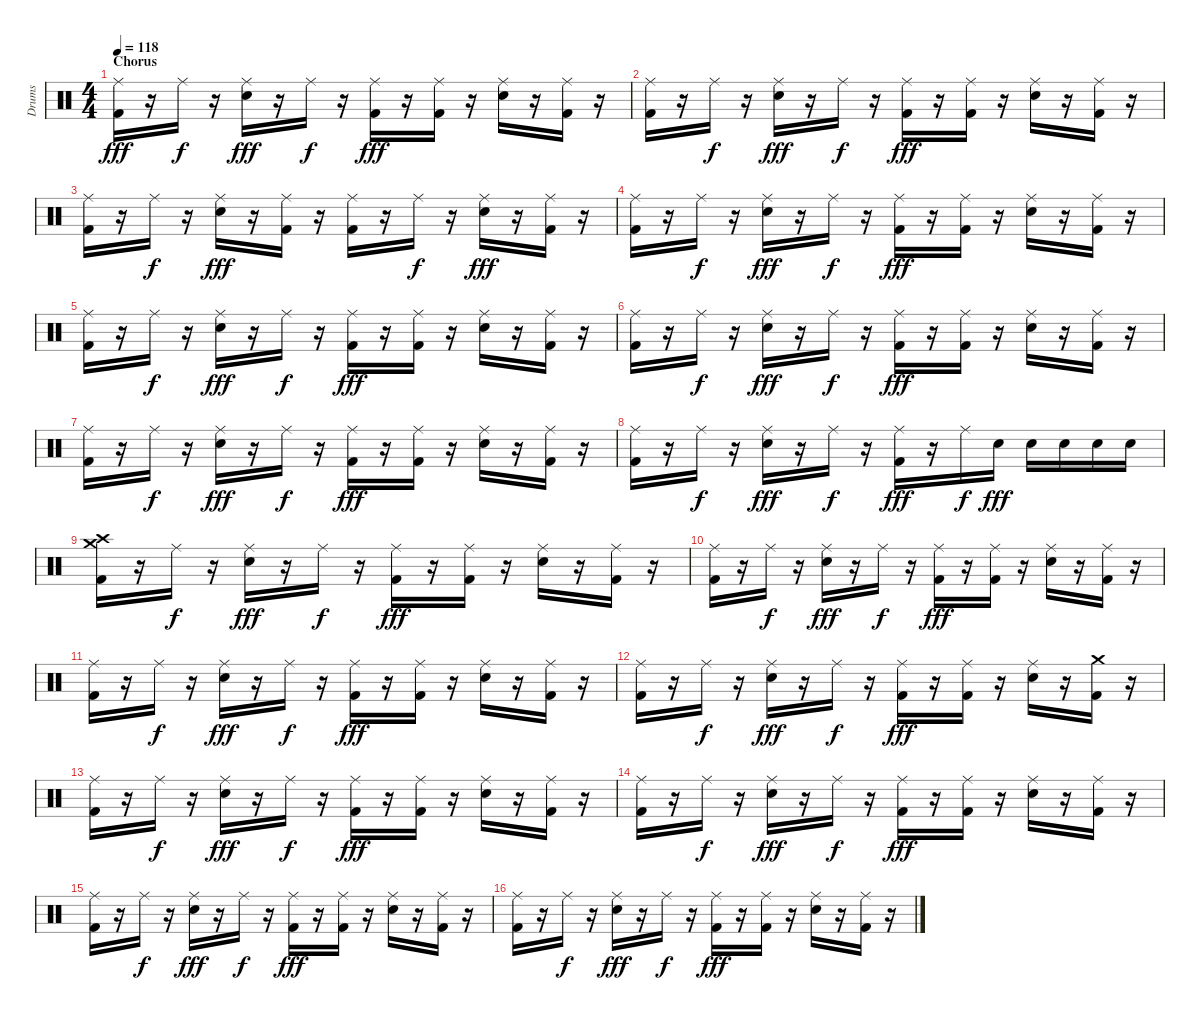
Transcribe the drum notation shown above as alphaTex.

\track ("Drums" "Drums") {instrument percussion}
\staff {score}
\articulation defaults
\ts (4 4)
\section ("" "Chorus")
\tempo 118
\clef neutral
\ks c
("Ride (middle)" "Kick (hit) 2").16{dy fff} r.16 "Ride (middle)".16{dy f} r.16 ("Ride (middle)" "Snare (hit) 2").16{dy fff} r.16 "Ride (middle)".16{dy f} r.16 ("Ride (middle)" "Kick (hit) 2").16{dy fff} r.16 ("Ride (middle)" "Kick (hit) 2").16 r.16 ("Ride (middle)" "Snare (hit) 2").16 r.16 ("Ride (middle)" "Kick (hit) 2").16 r.16 |
("Ride (middle)" "Kick (hit) 2").16 r.16 "Ride (middle)".16{dy f} r.16 ("Ride (middle)" "Snare (hit) 2").16{dy fff} r.16 "Ride (middle)".16{dy f} r.16 ("Ride (middle)" "Kick (hit) 2").16{dy fff} r.16 ("Ride (middle)" "Kick (hit) 2").16 r.16 ("Ride (middle)" "Snare (hit) 2").16 r.16 ("Ride (middle)" "Kick (hit) 2").16 r.16 |
("Ride (middle)" "Kick (hit) 2").16 r.16 "Ride (middle)".16{dy f} r.16 ("Ride (middle)" "Snare (hit) 2").16{dy fff} r.16 ("Ride (middle)" "Kick (hit) 2").16 r.16 ("Ride (middle)" "Kick (hit) 2").16 r.16 "Ride (middle)".16{dy f} r.16 ("Ride (middle)" "Snare (hit) 2").16{dy fff} r.16 ("Ride (middle)" "Kick (hit) 2").16 r.16 |
("Ride (middle)" "Kick (hit) 2").16 r.16 "Ride (middle)".16{dy f} r.16 ("Ride (middle)" "Snare (hit) 2").16{dy fff} r.16 "Ride (middle)".16{dy f} r.16 ("Ride (middle)" "Kick (hit) 2").16{dy fff} r.16 ("Ride (middle)" "Kick (hit) 2").16 r.16 ("Ride (middle)" "Snare (hit) 2").16 r.16 ("Ride (middle)" "Kick (hit) 2").16 r.16 |
("Ride (middle)" "Kick (hit) 2").16 r.16 "Ride (middle)".16{dy f} r.16 ("Ride (middle)" "Snare (hit) 2").16{dy fff} r.16 "Ride (middle)".16{dy f} r.16 ("Ride (middle)" "Kick (hit) 2").16{dy fff} r.16 ("Ride (middle)" "Kick (hit) 2").16 r.16 ("Ride (middle)" "Snare (hit) 2").16 r.16 ("Ride (middle)" "Kick (hit) 2").16 r.16 |
("Ride (middle)" "Kick (hit) 2").16 r.16 "Ride (middle)".16{dy f} r.16 ("Ride (middle)" "Snare (hit) 2").16{dy fff} r.16 "Ride (middle)".16{dy f} r.16 ("Ride (middle)" "Kick (hit) 2").16{dy fff} r.16 ("Ride (middle)" "Kick (hit) 2").16 r.16 ("Ride (middle)" "Snare (hit) 2").16 r.16 ("Ride (middle)" "Kick (hit) 2").16 r.16 |
("Ride (middle)" "Kick (hit) 2").16 r.16 "Ride (middle)".16{dy f} r.16 ("Ride (middle)" "Snare (hit) 2").16{dy fff} r.16 "Ride (middle)".16{dy f} r.16 ("Ride (middle)" "Kick (hit) 2").16{dy fff} r.16 ("Ride (middle)" "Kick (hit) 2").16 r.16 ("Ride (middle)" "Snare (hit) 2").16 r.16 ("Ride (middle)" "Kick (hit) 2").16 r.16 |
("Ride (middle)" "Kick (hit) 2").16 r.16 "Ride (middle)".16{dy f} r.16 ("Ride (middle)" "Snare (hit) 2").16{dy fff} r.16 "Ride (middle)".16{dy f} r.16 ("Ride (middle)" "Kick (hit) 2").16{dy fff} r.16 "Ride (middle)".16{dy f} "Snare (hit) 2".16{dy fff} "Snare (hit) 2".16 "Snare (hit) 2".16 "Snare (hit) 2".16 "Snare (hit) 2".16 |
("Crash high (hit)" "Crash medium (hit)" "Kick (hit) 2").16 r.16 "Ride (middle)".16{dy f} r.16 ("Ride (middle)" "Snare (hit) 2").16{dy fff} r.16 "Ride (middle)".16{dy f} r.16 ("Ride (middle)" "Kick (hit) 2").16{dy fff} r.16 ("Ride (middle)" "Kick (hit) 2").16 r.16 ("Ride (middle)" "Snare (hit) 2").16 r.16 ("Ride (middle)" "Kick (hit) 2").16 r.16 |
("Ride (middle)" "Kick (hit) 2").16 r.16 "Ride (middle)".16{dy f} r.16 ("Ride (middle)" "Snare (hit) 2").16{dy fff} r.16 "Ride (middle)".16{dy f} r.16 ("Ride (middle)" "Kick (hit) 2").16{dy fff} r.16 ("Ride (middle)" "Kick (hit) 2").16 r.16 ("Ride (middle)" "Snare (hit) 2").16 r.16 ("Ride (middle)" "Kick (hit) 2").16 r.16 |
("Ride (middle)" "Kick (hit) 2").16 r.16 "Ride (middle)".16{dy f} r.16 ("Ride (middle)" "Snare (hit) 2").16{dy fff} r.16 "Ride (middle)".16{dy f} r.16 ("Ride (middle)" "Kick (hit) 2").16{dy fff} r.16 ("Ride (middle)" "Kick (hit) 2").16 r.16 ("Ride (middle)" "Snare (hit) 2").16 r.16 ("Ride (middle)" "Kick (hit) 2").16 r.16 |
("Ride (middle)" "Kick (hit) 2").16 r.16 "Ride (middle)".16{dy f} r.16 ("Ride (middle)" "Snare (hit) 2").16{dy fff} r.16 "Ride (middle)".16{dy f} r.16 ("Ride (middle)" "Kick (hit) 2").16{dy fff} r.16 ("Ride (middle)" "Kick (hit) 2").16 r.16 ("Ride (middle)" "Snare (hit) 2").16 r.16 ("Crash medium (hit)" "Kick (hit) 2").16 r.16 |
("Ride (middle)" "Kick (hit) 2").16 r.16 "Ride (middle)".16{dy f} r.16 ("Ride (middle)" "Snare (hit) 2").16{dy fff} r.16 "Ride (middle)".16{dy f} r.16 ("Ride (middle)" "Kick (hit) 2").16{dy fff} r.16 ("Ride (middle)" "Kick (hit) 2").16 r.16 ("Ride (middle)" "Snare (hit) 2").16 r.16 ("Ride (middle)" "Kick (hit) 2").16 r.16 |
("Ride (middle)" "Kick (hit) 2").16 r.16 "Ride (middle)".16{dy f} r.16 ("Ride (middle)" "Snare (hit) 2").16{dy fff} r.16 "Ride (middle)".16{dy f} r.16 ("Ride (middle)" "Kick (hit) 2").16{dy fff} r.16 ("Ride (middle)" "Kick (hit) 2").16 r.16 ("Ride (middle)" "Snare (hit) 2").16 r.16 ("Ride (middle)" "Kick (hit) 2").16 r.16 |
("Ride (middle)" "Kick (hit) 2").16 r.16 "Ride (middle)".16{dy f} r.16 ("Ride (middle)" "Snare (hit) 2").16{dy fff} r.16 "Ride (middle)".16{dy f} r.16 ("Ride (middle)" "Kick (hit) 2").16{dy fff} r.16 ("Ride (middle)" "Kick (hit) 2").16 r.16 ("Ride (middle)" "Snare (hit) 2").16 r.16 ("Ride (middle)" "Kick (hit) 2").16 r.16 |
("Ride (middle)" "Kick (hit) 2").16 r.16 "Ride (middle)".16{dy f} r.16 ("Ride (middle)" "Snare (hit) 2").16{dy fff} r.16 "Ride (middle)".16{dy f} r.16 ("Ride (middle)" "Kick (hit) 2").16{dy fff} r.16 ("Ride (middle)" "Kick (hit) 2").16 r.16 ("Ride (middle)" "Snare (hit) 2").16 r.16 ("Ride (middle)" "Kick (hit) 2").16 r.16
